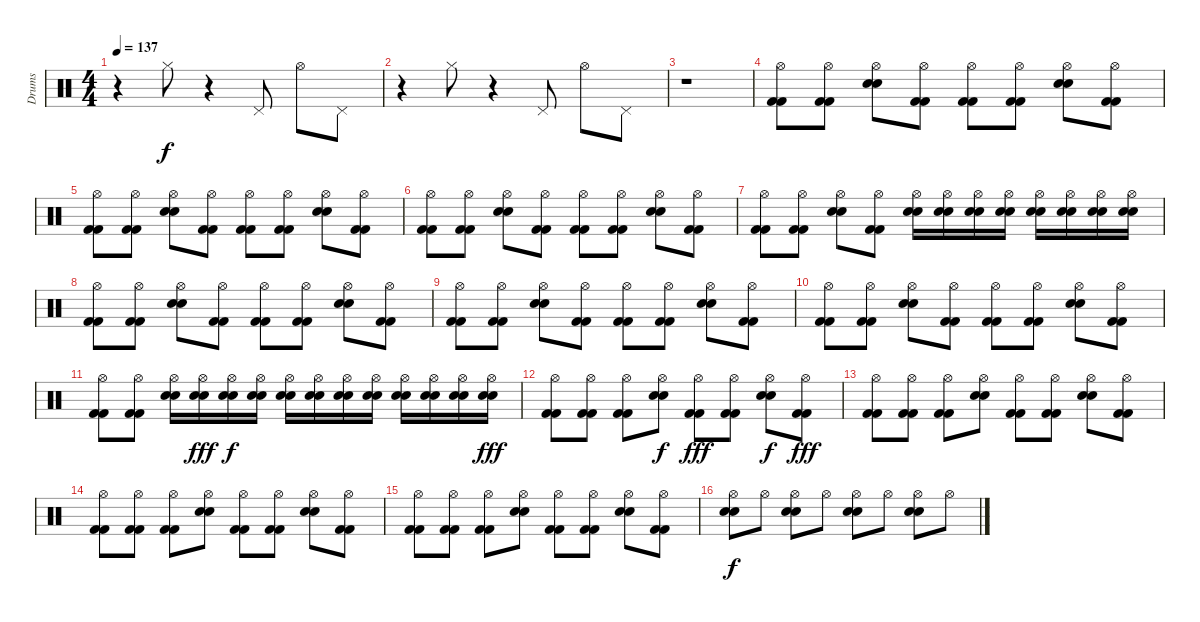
\track ("Drums" "Drums") {instrument percussion}
\staff {score}
\articulation defaults
\ts (4 4)
\tempo 137
\clef neutral
\ks c
r.4{dy f} "Hi-Hat (closed)".8 r.4 "Pedal Hi-Hat (hit)".8 "Hi-Hat (open)".8 "Pedal Hi-Hat (hit)".8 |
r.4 "Hi-Hat (closed)".8 r.4 "Pedal Hi-Hat (hit)".8 "Hi-Hat (open)".8 "Pedal Hi-Hat (hit)".8 |
r.1 |
("Hi-Hat (open)" "Kick (hit) 2" "Kick (hit) 2").8 ("Hi-Hat (open)" "Kick (hit) 2" "Kick (hit) 2").8 ("Hi-Hat (open)" "Electric Snare (hit)" "Electric Snare (hit)").8 ("Hi-Hat (open)" "Kick (hit) 2" "Kick (hit) 2").8 ("Hi-Hat (open)" "Kick (hit) 2" "Kick (hit) 2").8 ("Hi-Hat (open)" "Kick (hit) 2" "Kick (hit) 2").8 ("Hi-Hat (open)" "Electric Snare (hit)" "Electric Snare (hit)").8 ("Hi-Hat (open)" "Kick (hit) 2" "Kick (hit) 2").8 |
("Hi-Hat (open)" "Kick (hit) 2" "Kick (hit) 2").8 ("Hi-Hat (open)" "Kick (hit) 2" "Kick (hit) 2").8 ("Hi-Hat (open)" "Electric Snare (hit)" "Electric Snare (hit)").8 ("Hi-Hat (open)" "Kick (hit) 2" "Kick (hit) 2").8 ("Hi-Hat (open)" "Kick (hit) 2" "Kick (hit) 2").8 ("Hi-Hat (open)" "Kick (hit) 2" "Kick (hit) 2").8 ("Hi-Hat (open)" "Electric Snare (hit)" "Electric Snare (hit)").8 ("Hi-Hat (open)" "Kick (hit) 2" "Kick (hit) 2").8 |
("Hi-Hat (open)" "Kick (hit) 2" "Kick (hit) 2").8 ("Hi-Hat (open)" "Kick (hit) 2" "Kick (hit) 2").8 ("Hi-Hat (open)" "Electric Snare (hit)" "Electric Snare (hit)").8 ("Hi-Hat (open)" "Kick (hit) 2" "Kick (hit) 2").8 ("Hi-Hat (open)" "Kick (hit) 2" "Kick (hit) 2").8 ("Hi-Hat (open)" "Kick (hit) 2" "Kick (hit) 2").8 ("Hi-Hat (open)" "Electric Snare (hit)" "Electric Snare (hit)").8 ("Hi-Hat (open)" "Kick (hit) 2" "Kick (hit) 2").8 |
("Hi-Hat (open)" "Kick (hit) 2" "Kick (hit) 2").8 ("Hi-Hat (open)" "Kick (hit) 2" "Kick (hit) 2").8 ("Hi-Hat (open)" "Electric Snare (hit)" "Electric Snare (hit)").8 ("Hi-Hat (open)" "Kick (hit) 2" "Kick (hit) 2").8 ("Hi-Hat (open)" "Electric Snare (hit)" "Electric Snare (hit)").16 ("Hi-Hat (open)" "Electric Snare (hit)" "Electric Snare (hit)").16 ("Hi-Hat (open)" "Electric Snare (hit)" "Electric Snare (hit)").16 ("Hi-Hat (open)" "Electric Snare (hit)" "Electric Snare (hit)").16 ("Hi-Hat (open)" "Electric Snare (hit)" "Electric Snare (hit)").16 ("Hi-Hat (open)" "Electric Snare (hit)" "Electric Snare (hit)").16 ("Hi-Hat (open)" "Electric Snare (hit)" "Electric Snare (hit)").16 ("Hi-Hat (open)" "Electric Snare (hit)" "Electric Snare (hit)").16 |
("Hi-Hat (open)" "Kick (hit) 2" "Kick (hit) 2").8 ("Hi-Hat (open)" "Kick (hit) 2" "Kick (hit) 2").8 ("Hi-Hat (open)" "Electric Snare (hit)" "Electric Snare (hit)").8 ("Hi-Hat (open)" "Kick (hit) 2" "Kick (hit) 2").8 ("Hi-Hat (open)" "Kick (hit) 2" "Kick (hit) 2").8 ("Hi-Hat (open)" "Kick (hit) 2" "Kick (hit) 2").8 ("Hi-Hat (open)" "Electric Snare (hit)" "Electric Snare (hit)").8 ("Hi-Hat (open)" "Kick (hit) 2" "Kick (hit) 2").8 |
("Hi-Hat (open)" "Kick (hit) 2" "Kick (hit) 2").8 ("Hi-Hat (open)" "Kick (hit) 2" "Kick (hit) 2").8 ("Hi-Hat (open)" "Electric Snare (hit)" "Electric Snare (hit)").8 ("Hi-Hat (open)" "Kick (hit) 2" "Kick (hit) 2").8 ("Hi-Hat (open)" "Kick (hit) 2" "Kick (hit) 2").8 ("Hi-Hat (open)" "Kick (hit) 2" "Kick (hit) 2").8 ("Hi-Hat (open)" "Electric Snare (hit)" "Electric Snare (hit)").8 ("Hi-Hat (open)" "Kick (hit) 2" "Kick (hit) 2").8 |
("Hi-Hat (open)" "Kick (hit) 2" "Kick (hit) 2").8 ("Hi-Hat (open)" "Kick (hit) 2" "Kick (hit) 2").8 ("Hi-Hat (open)" "Electric Snare (hit)" "Electric Snare (hit)").8 ("Hi-Hat (open)" "Kick (hit) 2" "Kick (hit) 2").8 ("Hi-Hat (open)" "Kick (hit) 2" "Kick (hit) 2").8 ("Hi-Hat (open)" "Kick (hit) 2" "Kick (hit) 2").8 ("Hi-Hat (open)" "Electric Snare (hit)" "Electric Snare (hit)").8 ("Hi-Hat (open)" "Kick (hit) 2" "Kick (hit) 2").8 |
("Hi-Hat (open)" "Kick (hit) 2" "Kick (hit) 2").8 ("Hi-Hat (open)" "Kick (hit) 2" "Kick (hit) 2").8 ("Hi-Hat (open)" "Electric Snare (hit)" "Electric Snare (hit)").16 ("Hi-Hat (open)" "Electric Snare (hit)" "Electric Snare (hit)").16{dy fff} ("Hi-Hat (open)" "Electric Snare (hit)" "Electric Snare (hit)").16{dy f} ("Hi-Hat (open)" "Electric Snare (hit)" "Electric Snare (hit)").16 ("Hi-Hat (open)" "Electric Snare (hit)" "Electric Snare (hit)").16 ("Hi-Hat (open)" "Electric Snare (hit)" "Electric Snare (hit)").16 ("Hi-Hat (open)" "Electric Snare (hit)" "Electric Snare (hit)").16 ("Hi-Hat (open)" "Electric Snare (hit)" "Electric Snare (hit)").16 ("Hi-Hat (open)" "Electric Snare (hit)" "Electric Snare (hit)").16 ("Hi-Hat (open)" "Electric Snare (hit)" "Electric Snare (hit)").16 ("Hi-Hat (open)" "Electric Snare (hit)" "Electric Snare (hit)").16 ("Hi-Hat (open)" "Electric Snare (hit)" "Electric Snare (hit)").16{dy fff} |
("Hi-Hat (open)" "Kick (hit) 2" "Kick (hit) 2").8 ("Hi-Hat (open)" "Kick (hit) 2" "Kick (hit) 2").8 ("Hi-Hat (open)" "Kick (hit) 2" "Kick (hit) 2").8 ("Hi-Hat (open)" "Electric Snare (hit)" "Electric Snare (hit)").8{dy f} ("Hi-Hat (open)" "Kick (hit) 2" "Kick (hit) 2").8{dy fff} ("Hi-Hat (open)" "Kick (hit) 2" "Kick (hit) 2").8 ("Hi-Hat (open)" "Electric Snare (hit)" "Electric Snare (hit)").8{dy f} ("Hi-Hat (open)" "Kick (hit) 2" "Kick (hit) 2").8{dy fff} |
("Hi-Hat (open)" "Kick (hit) 2" "Kick (hit) 2").8 ("Hi-Hat (open)" "Kick (hit) 2" "Kick (hit) 2").8 ("Hi-Hat (open)" "Kick (hit) 2" "Kick (hit) 2").8 ("Hi-Hat (open)" "Electric Snare (hit)" "Electric Snare (hit)").8 ("Hi-Hat (open)" "Kick (hit) 2" "Kick (hit) 2").8 ("Hi-Hat (open)" "Kick (hit) 2" "Kick (hit) 2").8 ("Hi-Hat (open)" "Electric Snare (hit)" "Electric Snare (hit)").8 ("Hi-Hat (open)" "Kick (hit) 2" "Kick (hit) 2").8 |
("Hi-Hat (open)" "Kick (hit) 2" "Kick (hit) 2").8 ("Hi-Hat (open)" "Kick (hit) 2" "Kick (hit) 2").8 ("Hi-Hat (open)" "Kick (hit) 2" "Kick (hit) 2").8 ("Hi-Hat (open)" "Electric Snare (hit)" "Electric Snare (hit)").8 ("Hi-Hat (open)" "Kick (hit) 2" "Kick (hit) 2").8 ("Hi-Hat (open)" "Kick (hit) 2" "Kick (hit) 2").8 ("Hi-Hat (open)" "Electric Snare (hit)" "Electric Snare (hit)").8 ("Hi-Hat (open)" "Kick (hit) 2" "Kick (hit) 2").8 |
("Hi-Hat (open)" "Kick (hit) 2" "Kick (hit) 2").8 ("Hi-Hat (open)" "Kick (hit) 2" "Kick (hit) 2").8 ("Hi-Hat (open)" "Kick (hit) 2" "Kick (hit) 2").8 ("Hi-Hat (open)" "Electric Snare (hit)" "Electric Snare (hit)").8 ("Hi-Hat (open)" "Kick (hit) 2" "Kick (hit) 2").8 ("Hi-Hat (open)" "Kick (hit) 2" "Kick (hit) 2").8 ("Hi-Hat (open)" "Electric Snare (hit)" "Electric Snare (hit)").8 ("Hi-Hat (open)" "Kick (hit) 2" "Kick (hit) 2").8 |
("Hi-Hat (open)" "Electric Snare (hit)" "Electric Snare (hit)").8{dy f} "Hi-Hat (open)".8 ("Hi-Hat (open)" "Electric Snare (hit)" "Electric Snare (hit)").8 "Hi-Hat (open)".8 ("Hi-Hat (open)" "Electric Snare (hit)" "Electric Snare (hit)").8 "Hi-Hat (open)".8 ("Hi-Hat (open)" "Electric Snare (hit)" "Electric Snare (hit)").8 "Hi-Hat (open)".8
